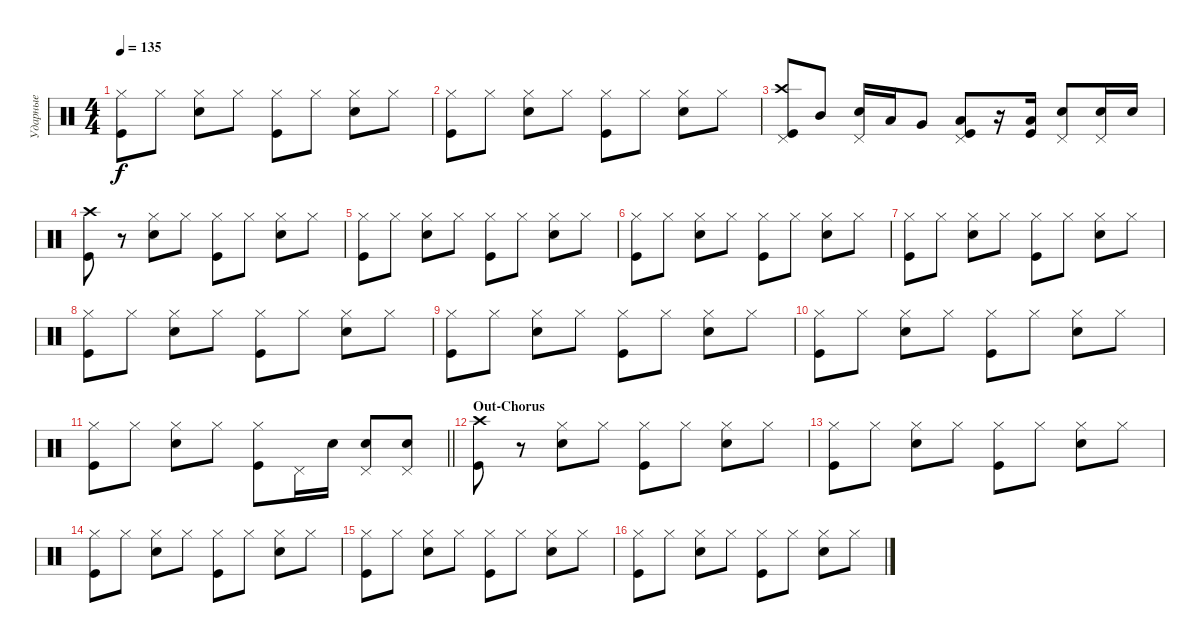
\track ("Ударные" "Ударные") {instrument percussion}
\staff {score}
\articulation defaults
\ts (4 4)
\tempo 135
\clef neutral
\ks c
("Hi-Hat (closed)" "Kick (hit)").8{dy f} "Hi-Hat (closed)".8 ("Hi-Hat (closed)" "Snare (hit) 2").8 "Hi-Hat (closed)".8 ("Hi-Hat (closed)" "Kick (hit)").8 "Hi-Hat (closed)".8 ("Hi-Hat (closed)" "Snare (hit) 2").8 "Hi-Hat (closed)".8 |
("Hi-Hat (closed)" "Kick (hit)").8 "Hi-Hat (closed)".8 ("Hi-Hat (closed)" "Snare (hit) 2").8 "Hi-Hat (closed)".8 ("Hi-Hat (closed)" "Kick (hit)").8 "Hi-Hat (closed)".8 ("Hi-Hat (closed)" "Snare (hit) 2").8 "Hi-Hat (closed)".8 |
("Kick (hit)" "Crash high (hit)" "Pedal Hi-Hat (hit)").8 "Mid Tom (hit)".8 ("Pedal Hi-Hat (hit)" "Snare (hit) 2").16 "Low Tom (hit)".16 "Very Low Tom (hit)".8 ("Low Floor Tom (hit)" "Kick (hit)" "Pedal Hi-Hat (hit)").8 r.16 ("Low Floor Tom (hit)" "Kick (hit)").16 ("Snare (hit) 2" "Pedal Hi-Hat (hit)").8 ("Snare (hit) 2" "Pedal Hi-Hat (hit)").16 "Snare (hit) 2".16 |
("Crash high (hit)" "Kick (hit)").8 r.8 ("Hi-Hat (closed)" "Snare (hit) 2").8 "Hi-Hat (closed)".8 ("Hi-Hat (closed)" "Kick (hit)").8 "Hi-Hat (closed)".8 ("Hi-Hat (closed)" "Snare (hit) 2").8 "Hi-Hat (closed)".8 |
("Hi-Hat (closed)" "Kick (hit)").8 "Hi-Hat (closed)".8 ("Hi-Hat (closed)" "Snare (hit) 2").8 "Hi-Hat (closed)".8 ("Hi-Hat (closed)" "Kick (hit)").8 "Hi-Hat (closed)".8 ("Hi-Hat (closed)" "Snare (hit) 2").8 "Hi-Hat (closed)".8 |
("Hi-Hat (closed)" "Kick (hit)").8 "Hi-Hat (closed)".8 ("Hi-Hat (closed)" "Snare (hit) 2").8 "Hi-Hat (closed)".8 ("Hi-Hat (closed)" "Kick (hit)").8 "Hi-Hat (closed)".8 ("Hi-Hat (closed)" "Snare (hit) 2").8 "Hi-Hat (closed)".8 |
("Hi-Hat (closed)" "Kick (hit)").8 "Hi-Hat (closed)".8 ("Hi-Hat (closed)" "Snare (hit) 2").8 "Hi-Hat (closed)".8 ("Hi-Hat (closed)" "Kick (hit)").8 "Hi-Hat (closed)".8 ("Hi-Hat (closed)" "Snare (hit) 2").8 "Hi-Hat (closed)".8 |
("Hi-Hat (closed)" "Kick (hit)").8 "Hi-Hat (closed)".8 ("Hi-Hat (closed)" "Snare (hit) 2").8 "Hi-Hat (closed)".8 ("Hi-Hat (closed)" "Kick (hit)").8 "Hi-Hat (closed)".8 ("Hi-Hat (closed)" "Snare (hit) 2").8 "Hi-Hat (closed)".8 |
("Hi-Hat (closed)" "Kick (hit)").8 "Hi-Hat (closed)".8 ("Hi-Hat (closed)" "Snare (hit) 2").8 "Hi-Hat (closed)".8 ("Hi-Hat (closed)" "Kick (hit)").8 "Hi-Hat (closed)".8 ("Hi-Hat (closed)" "Snare (hit) 2").8 "Hi-Hat (closed)".8 |
("Hi-Hat (closed)" "Kick (hit)").8 "Hi-Hat (closed)".8 ("Hi-Hat (closed)" "Snare (hit) 2").8 "Hi-Hat (closed)".8 ("Hi-Hat (closed)" "Kick (hit)").8 "Hi-Hat (closed)".8 ("Hi-Hat (closed)" "Snare (hit) 2").8 "Hi-Hat (closed)".8 |
\barLineRight lightlight
("Hi-Hat (closed)" "Kick (hit)").8 "Hi-Hat (closed)".8 ("Hi-Hat (closed)" "Snare (hit) 2").8 "Hi-Hat (closed)".8 ("Hi-Hat (closed)" "Kick (hit)").8 "Pedal Hi-Hat (hit)".16 "Snare (hit) 2".16 ("Pedal Hi-Hat (hit)" "Snare (hit) 2").8 ("Pedal Hi-Hat (hit)" "Snare (hit) 2").8 |
\section ("" "Out-Chorus")
("Crash high (hit)" "Kick (hit)").8 r.8 ("Hi-Hat (closed)" "Snare (hit) 2").8 "Hi-Hat (closed)".8 ("Hi-Hat (closed)" "Kick (hit)").8 "Hi-Hat (closed)".8 ("Hi-Hat (closed)" "Snare (hit) 2").8 "Hi-Hat (closed)".8 |
("Hi-Hat (closed)" "Kick (hit)").8 "Hi-Hat (closed)".8 ("Hi-Hat (closed)" "Snare (hit) 2").8 "Hi-Hat (closed)".8 ("Hi-Hat (closed)" "Kick (hit)").8 "Hi-Hat (closed)".8 ("Hi-Hat (closed)" "Snare (hit) 2").8 "Hi-Hat (closed)".8 |
("Hi-Hat (closed)" "Kick (hit)").8 "Hi-Hat (closed)".8 ("Hi-Hat (closed)" "Snare (hit) 2").8 "Hi-Hat (closed)".8 ("Hi-Hat (closed)" "Kick (hit)").8 "Hi-Hat (closed)".8 ("Hi-Hat (closed)" "Snare (hit) 2").8 "Hi-Hat (closed)".8 |
("Hi-Hat (closed)" "Kick (hit)").8 "Hi-Hat (closed)".8 ("Hi-Hat (closed)" "Snare (hit) 2").8 "Hi-Hat (closed)".8 ("Hi-Hat (closed)" "Kick (hit)").8 "Hi-Hat (closed)".8 ("Hi-Hat (closed)" "Snare (hit) 2").8 "Hi-Hat (closed)".8 |
("Hi-Hat (closed)" "Kick (hit)").8 "Hi-Hat (closed)".8 ("Hi-Hat (closed)" "Snare (hit) 2").8 "Hi-Hat (closed)".8 ("Hi-Hat (closed)" "Kick (hit)").8 "Hi-Hat (closed)".8 ("Hi-Hat (closed)" "Snare (hit) 2").8 "Hi-Hat (closed)".8
